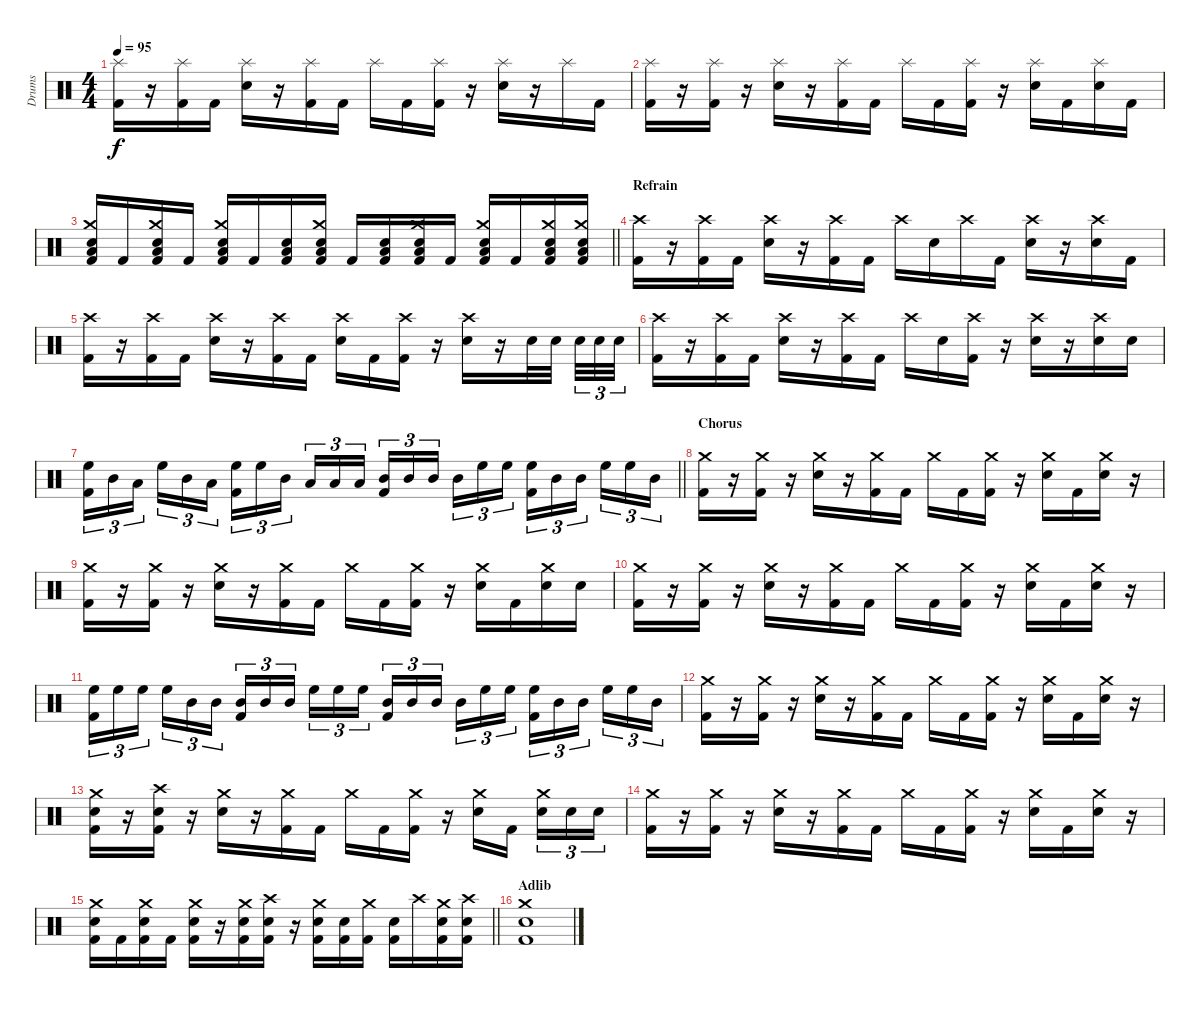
\track ("Drums" "Drums") {instrument percussion}
\staff {score}
\articulation defaults
\ts (4 4)
\tempo 95
\clef neutral
\ks c
("Splash (hit)" "Kick (hit) 2").16{dy f} r.16 ("Splash (hit)" "Kick (hit) 2").16 "Kick (hit) 2".16 ("Splash (hit)" "Electric Snare (hit)").16 r.16 ("Splash (hit)" "Kick (hit) 2").16 "Kick (hit) 2".16 "Splash (hit)".16 "Kick (hit) 2".16 ("Splash (hit)" "Kick (hit) 2").16 r.16 ("Splash (hit)" "Electric Snare (hit)").16 r.16 "Splash (hit)".16 "Kick (hit) 2".16 |
("Splash (hit)" "Kick (hit) 2").16 r.16 ("Splash (hit)" "Kick (hit) 2").16 r.16 ("Splash (hit)" "Electric Snare (hit)").16 r.16 ("Splash (hit)" "Kick (hit) 2").16 "Kick (hit) 2".16 "Splash (hit)".16 "Kick (hit) 2".16 ("Splash (hit)" "Kick (hit) 2").16 r.16 ("Splash (hit)" "Electric Snare (hit)").16 "Kick (hit) 2".16 ("Splash (hit)" "Electric Snare (hit)").16 "Kick (hit) 2".16 |
\barLineRight lightlight
("Crash medium (hit)" "Electric Snare (hit)" "Low Floor Tom (hit)" "Kick (hit) 2").16 "Kick (hit) 2".16 ("Crash medium (hit)" "Electric Snare (hit)" "Low Floor Tom (hit)" "Kick (hit) 2").16 "Kick (hit) 2".16 ("Crash medium (hit)" "Electric Snare (hit)" "Low Floor Tom (hit)" "Kick (hit) 2").16 "Kick (hit) 2".16 ("Electric Snare (hit)" "Low Floor Tom (hit)" "Kick (hit) 2").16 ("Crash medium (hit)" "Electric Snare (hit)" "Low Floor Tom (hit)" "Kick (hit) 2").16 "Kick (hit) 2".16 ("Electric Snare (hit)" "Low Floor Tom (hit)" "Kick (hit) 2").16 ("Crash medium (hit)" "Electric Snare (hit)" "Low Floor Tom (hit)" "Kick (hit) 2").16 "Kick (hit) 2".16 ("Crash medium (hit)" "Electric Snare (hit)" "Low Floor Tom (hit)" "Kick (hit) 2").16 "Kick (hit) 2".16 ("Crash medium (hit)" "Electric Snare (hit)" "Low Floor Tom (hit)" "Kick (hit) 2").16 ("Crash medium (hit)" "Electric Snare (hit)" "Low Floor Tom (hit)" "Kick (hit) 2").16 |
\section ("" "Refrain")
("Crash high (hit)" "Kick (hit) 2").16 r.16 ("Crash high (hit)" "Kick (hit) 2").16 "Kick (hit) 2".16 ("Crash high (hit)" "Electric Snare (hit)").16 r.16 ("Crash high (hit)" "Kick (hit) 2").16 "Kick (hit) 2".16 "Crash high (hit)".16 "Electric Snare (hit)".16 "Crash high (hit)".16 "Kick (hit) 2".16 ("Crash high (hit)" "Electric Snare (hit)").16 r.16 ("Crash high (hit)" "Electric Snare (hit)").16 "Kick (hit) 2".16 |
("Crash high (hit)" "Kick (hit) 2").16 r.16 ("Crash high (hit)" "Kick (hit) 2").16 "Kick (hit) 2".16 ("Crash high (hit)" "Electric Snare (hit)").16 r.16 ("Crash high (hit)" "Kick (hit) 2").16 "Kick (hit) 2".16 ("Crash high (hit)" "Electric Snare (hit)").16 "Kick (hit) 2".16 ("Crash high (hit)" "Kick (hit) 2").16 r.16 ("Crash high (hit)" "Electric Snare (hit)").16 r.16 "Snare (hit) 2".32 "Snare (hit) 2".32{beam splitsecondary} "Snare (hit) 2".32{tu (3 2)} "Electric Snare (hit)".32{tu (3 2)} "Electric Snare (hit)".32{tu (3 2)} |
("Crash high (hit)" "Kick (hit) 2").16 r.16 ("Crash high (hit)" "Kick (hit) 2").16 "Kick (hit) 2".16 ("Crash high (hit)" "Electric Snare (hit)").16 r.16 ("Crash high (hit)" "Kick (hit) 2").16 "Kick (hit) 2".16 "Crash high (hit)".16 "Electric Snare (hit)".16 ("Crash high (hit)" "Kick (hit) 2").16 r.16 ("Crash high (hit)" "Electric Snare (hit)").16 r.16 ("Crash high (hit)" "Electric Snare (hit)").16 "Electric Snare (hit)".16 |
\barLineRight lightlight
("High Floor Tom (hit)" "Kick (hit) 2").16{tu (3 2)} "Mid Tom (hit)".16{tu (3 2)} "Low Tom (hit)".16{tu (3 2) beam splitsecondary} "High Floor Tom (hit)".16{tu (3 2)} "Mid Tom (hit)".16{tu (3 2)} "Low Tom (hit)".16{tu (3 2)} ("High Floor Tom (hit)" "Kick (hit) 2").16{tu (3 2)} "High Floor Tom (hit)".16{tu (3 2)} "Mid Tom (hit)".16{tu (3 2) beam splitsecondary} "Low Tom (hit)".16{tu (3 2)} "Low Tom (hit)".16{tu (3 2)} "Low Tom (hit)".16{tu (3 2)} ("Mid Tom (hit)" "Kick (hit) 2").16{tu (3 2)} "Mid Tom (hit)".16{tu (3 2)} "Mid Tom (hit)".16{tu (3 2) beam splitsecondary} "Mid Tom (hit)".16{tu (3 2)} "High Floor Tom (hit)".16{tu (3 2)} "High Floor Tom (hit)".16{tu (3 2)} ("High Floor Tom (hit)" "Kick (hit) 2").16{tu (3 2)} "Mid Tom (hit)".16{tu (3 2)} "Mid Tom (hit)".16{tu (3 2) beam splitsecondary} "High Floor Tom (hit)".16{tu (3 2)} "High Floor Tom (hit)".16{tu (3 2)} "Mid Tom (hit)".16{tu (3 2)} |
\section ("" "Chorus")
("Crash medium (hit)" "Kick (hit) 2").16 r.16 ("Crash medium (hit)" "Kick (hit) 2").16 r.16 ("Crash medium (hit)" "Electric Snare (hit)").16 r.16 ("Crash medium (hit)" "Kick (hit) 2").16 "Kick (hit) 2".16 "Crash medium (hit)".16 "Kick (hit) 2".16 ("Crash medium (hit)" "Kick (hit) 2").16 r.16 ("Crash medium (hit)" "Electric Snare (hit)").16 "Kick (hit) 2".16 ("Crash medium (hit)" "Electric Snare (hit)").16 r.16 |
("Crash medium (hit)" "Kick (hit) 2").16 r.16 ("Crash medium (hit)" "Kick (hit) 2").16 r.16 ("Crash medium (hit)" "Electric Snare (hit)").16 r.16 ("Crash medium (hit)" "Kick (hit) 2").16 "Kick (hit) 2".16 "Crash medium (hit)".16 "Kick (hit) 2".16 ("Crash medium (hit)" "Kick (hit) 2").16 r.16 ("Crash medium (hit)" "Electric Snare (hit)").16 "Kick (hit) 2".16 ("Crash medium (hit)" "Electric Snare (hit)").16 "Electric Snare (hit)".16 |
("Crash medium (hit)" "Kick (hit) 2").16 r.16 ("Crash medium (hit)" "Kick (hit) 2").16 r.16 ("Crash medium (hit)" "Electric Snare (hit)").16 r.16 ("Crash medium (hit)" "Kick (hit) 2").16 "Kick (hit) 2".16 "Crash medium (hit)".16 "Kick (hit) 2".16 ("Crash medium (hit)" "Kick (hit) 2").16 r.16 ("Crash medium (hit)" "Electric Snare (hit)").16 "Kick (hit) 2".16 ("Crash medium (hit)" "Electric Snare (hit)").16 r.16 |
("High Floor Tom (hit)" "Kick (hit) 2").16{tu (3 2)} "High Floor Tom (hit)".16{tu (3 2)} "High Floor Tom (hit)".16{tu (3 2) beam splitsecondary} "High Floor Tom (hit)".16{tu (3 2)} "Mid Tom (hit)".16{tu (3 2)} "Mid Tom (hit)".16{tu (3 2)} ("Mid Tom (hit)" "Kick (hit) 2").16{tu (3 2)} "Mid Tom (hit)".16{tu (3 2)} "Mid Tom (hit)".16{tu (3 2) beam splitsecondary} "High Floor Tom (hit)".16{tu (3 2)} "High Floor Tom (hit)".16{tu (3 2)} "High Floor Tom (hit)".16{tu (3 2)} ("Mid Tom (hit)" "Kick (hit) 2").16{tu (3 2)} "Mid Tom (hit)".16{tu (3 2)} "Mid Tom (hit)".16{tu (3 2) beam splitsecondary} "Mid Tom (hit)".16{tu (3 2)} "High Floor Tom (hit)".16{tu (3 2)} "High Floor Tom (hit)".16{tu (3 2)} ("High Floor Tom (hit)" "Kick (hit) 2").16{tu (3 2)} "Mid Tom (hit)".16{tu (3 2)} "Mid Tom (hit)".16{tu (3 2) beam splitsecondary} "High Floor Tom (hit)".16{tu (3 2)} "High Floor Tom (hit)".16{tu (3 2)} "Mid Tom (hit)".16{tu (3 2)} |
("Crash medium (hit)" "Kick (hit) 2").16 r.16 ("Crash medium (hit)" "Kick (hit) 2").16 r.16 ("Crash medium (hit)" "Electric Snare (hit)").16 r.16 ("Crash medium (hit)" "Kick (hit) 2").16 "Kick (hit) 2".16 "Crash medium (hit)".16 "Kick (hit) 2".16 ("Crash medium (hit)" "Kick (hit) 2").16 r.16 ("Crash medium (hit)" "Electric Snare (hit)").16 "Kick (hit) 2".16 ("Crash medium (hit)" "Electric Snare (hit)").16 r.16 |
("Crash medium (hit)" "Electric Snare (hit)" "Kick (hit) 2").16 r.16 ("Crash high (hit)" "Electric Snare (hit)" "Kick (hit) 2").16 r.16 ("Crash medium (hit)" "Electric Snare (hit)").16 r.16 ("Crash medium (hit)" "Kick (hit) 2").16 "Kick (hit) 2".16 "Crash medium (hit)".16 "Kick (hit) 2".16 ("Crash medium (hit)" "Kick (hit) 2").16 r.16 ("Crash medium (hit)" "Electric Snare (hit)").16 "Kick (hit) 2".16{beam splitsecondary} ("Crash medium (hit)" "Electric Snare (hit)").16{tu (3 2)} "Electric Snare (hit)".16{tu (3 2)} "Electric Snare (hit)".16{tu (3 2)} |
("Crash medium (hit)" "Kick (hit) 2").16 r.16 ("Crash medium (hit)" "Kick (hit) 2").16 r.16 ("Crash medium (hit)" "Electric Snare (hit)").16 r.16 ("Crash medium (hit)" "Kick (hit) 2").16 "Kick (hit) 2".16 "Crash medium (hit)".16 "Kick (hit) 2".16 ("Crash medium (hit)" "Kick (hit) 2").16 r.16 ("Crash medium (hit)" "Electric Snare (hit)").16 "Kick (hit) 2".16 ("Crash medium (hit)" "Electric Snare (hit)").16 r.16 |
\barLineRight lightlight
("Crash medium (hit)" "Electric Snare (hit)" "Kick (hit) 2").16 "Kick (hit) 2".16 ("Crash medium (hit)" "Electric Snare (hit)" "Kick (hit) 2").16 "Kick (hit) 2".16 ("Crash medium (hit)" "Electric Snare (hit)" "Kick (hit) 2").16 r.16 ("Crash medium (hit)" "Electric Snare (hit)" "Kick (hit) 2").16 ("Crash high (hit)" "Electric Snare (hit)" "Kick (hit) 2").16 r.16 ("Crash medium (hit)" "Electric Snare (hit)" "Kick (hit) 2").16 ("Electric Snare (hit)" "Kick (hit) 2").16 ("Crash medium (hit)" "Kick (hit) 2").16 ("Electric Snare (hit)" "Kick (hit) 2").16 "Crash high (hit)".16 ("Crash medium (hit)" "Electric Snare (hit)" "Kick (hit) 2").16 ("Crash high (hit)" "Electric Snare (hit)" "Kick (hit) 2").16 |
\section ("" "Adlib")
("Crash medium (hit)" "Electric Snare (hit)" "Kick (hit) 2").1
